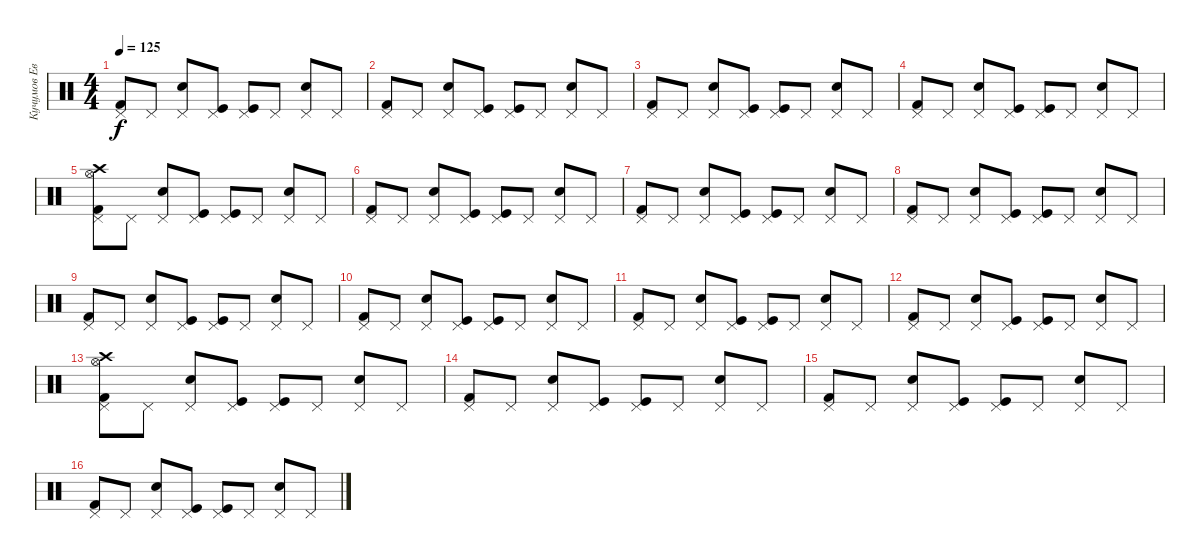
\track ("Кучумов Евгений" "Кучумов Ев") {instrument percussion}
\staff {score}
\articulation defaults
\ts (4 4)
\tempo 125
\clef neutral
\ks c
("Kick (hit) 2" "Pedal Hi-Hat (hit)").8{dy f} "Pedal Hi-Hat (hit)".8 ("Electric Snare (hit)" "Pedal Hi-Hat (hit)").8 ("Kick (hit)" "Pedal Hi-Hat (hit)").8 ("Kick (hit)" "Pedal Hi-Hat (hit)").8 "Pedal Hi-Hat (hit)".8 ("Electric Snare (hit)" "Pedal Hi-Hat (hit)").8 "Pedal Hi-Hat (hit)".8 |
("Kick (hit) 2" "Pedal Hi-Hat (hit)").8 "Pedal Hi-Hat (hit)".8 ("Electric Snare (hit)" "Pedal Hi-Hat (hit)").8 ("Kick (hit)" "Pedal Hi-Hat (hit)").8 ("Kick (hit)" "Pedal Hi-Hat (hit)").8 "Pedal Hi-Hat (hit)".8 ("Electric Snare (hit)" "Pedal Hi-Hat (hit)").8 "Pedal Hi-Hat (hit)".8 |
("Kick (hit) 2" "Pedal Hi-Hat (hit)").8 "Pedal Hi-Hat (hit)".8 ("Electric Snare (hit)" "Pedal Hi-Hat (hit)").8 ("Kick (hit)" "Pedal Hi-Hat (hit)").8 ("Kick (hit)" "Pedal Hi-Hat (hit)").8 "Pedal Hi-Hat (hit)".8 ("Electric Snare (hit)" "Pedal Hi-Hat (hit)").8 "Pedal Hi-Hat (hit)".8 |
("Kick (hit) 2" "Pedal Hi-Hat (hit)").8 "Pedal Hi-Hat (hit)".8 ("Electric Snare (hit)" "Pedal Hi-Hat (hit)").8 ("Kick (hit)" "Pedal Hi-Hat (hit)").8 ("Kick (hit)" "Pedal Hi-Hat (hit)").8 "Pedal Hi-Hat (hit)".8 ("Electric Snare (hit)" "Pedal Hi-Hat (hit)").8 "Pedal Hi-Hat (hit)".8 |
("Kick (hit) 2" "Crash high (hit)" "Hi-Hat (open)" "Pedal Hi-Hat (hit)").8 "Pedal Hi-Hat (hit)".8 ("Electric Snare (hit)" "Pedal Hi-Hat (hit)").8 ("Kick (hit)" "Pedal Hi-Hat (hit)").8 ("Kick (hit)" "Pedal Hi-Hat (hit)").8 "Pedal Hi-Hat (hit)".8 ("Electric Snare (hit)" "Pedal Hi-Hat (hit)").8 "Pedal Hi-Hat (hit)".8 |
("Kick (hit) 2" "Pedal Hi-Hat (hit)").8 "Pedal Hi-Hat (hit)".8 ("Electric Snare (hit)" "Pedal Hi-Hat (hit)").8 ("Kick (hit)" "Pedal Hi-Hat (hit)").8 ("Kick (hit)" "Pedal Hi-Hat (hit)").8 "Pedal Hi-Hat (hit)".8 ("Electric Snare (hit)" "Pedal Hi-Hat (hit)").8 "Pedal Hi-Hat (hit)".8 |
("Kick (hit) 2" "Pedal Hi-Hat (hit)").8 "Pedal Hi-Hat (hit)".8 ("Electric Snare (hit)" "Pedal Hi-Hat (hit)").8 ("Kick (hit)" "Pedal Hi-Hat (hit)").8 ("Kick (hit)" "Pedal Hi-Hat (hit)").8 "Pedal Hi-Hat (hit)".8 ("Electric Snare (hit)" "Pedal Hi-Hat (hit)").8 "Pedal Hi-Hat (hit)".8 |
("Kick (hit) 2" "Pedal Hi-Hat (hit)").8 "Pedal Hi-Hat (hit)".8 ("Electric Snare (hit)" "Pedal Hi-Hat (hit)").8 ("Kick (hit)" "Pedal Hi-Hat (hit)").8 ("Kick (hit)" "Pedal Hi-Hat (hit)").8 "Pedal Hi-Hat (hit)".8 ("Electric Snare (hit)" "Pedal Hi-Hat (hit)").8 "Pedal Hi-Hat (hit)".8 |
("Kick (hit) 2" "Pedal Hi-Hat (hit)").8 "Pedal Hi-Hat (hit)".8 ("Electric Snare (hit)" "Pedal Hi-Hat (hit)").8 ("Kick (hit)" "Pedal Hi-Hat (hit)").8 ("Kick (hit)" "Pedal Hi-Hat (hit)").8 "Pedal Hi-Hat (hit)".8 ("Electric Snare (hit)" "Pedal Hi-Hat (hit)").8 "Pedal Hi-Hat (hit)".8 |
("Kick (hit) 2" "Pedal Hi-Hat (hit)").8 "Pedal Hi-Hat (hit)".8 ("Electric Snare (hit)" "Pedal Hi-Hat (hit)").8 ("Kick (hit)" "Pedal Hi-Hat (hit)").8 ("Kick (hit)" "Pedal Hi-Hat (hit)").8 "Pedal Hi-Hat (hit)".8 ("Electric Snare (hit)" "Pedal Hi-Hat (hit)").8 "Pedal Hi-Hat (hit)".8 |
("Kick (hit) 2" "Pedal Hi-Hat (hit)").8 "Pedal Hi-Hat (hit)".8 ("Electric Snare (hit)" "Pedal Hi-Hat (hit)").8 ("Kick (hit)" "Pedal Hi-Hat (hit)").8 ("Kick (hit)" "Pedal Hi-Hat (hit)").8 "Pedal Hi-Hat (hit)".8 ("Electric Snare (hit)" "Pedal Hi-Hat (hit)").8 "Pedal Hi-Hat (hit)".8 |
("Kick (hit) 2" "Pedal Hi-Hat (hit)").8 "Pedal Hi-Hat (hit)".8 ("Electric Snare (hit)" "Pedal Hi-Hat (hit)").8 ("Kick (hit)" "Pedal Hi-Hat (hit)").8 ("Kick (hit)" "Pedal Hi-Hat (hit)").8 "Pedal Hi-Hat (hit)".8 ("Electric Snare (hit)" "Pedal Hi-Hat (hit)").8 "Pedal Hi-Hat (hit)".8 |
("Kick (hit) 2" "Crash high (hit)" "Hi-Hat (open)" "Pedal Hi-Hat (hit)").8 "Pedal Hi-Hat (hit)".8 ("Electric Snare (hit)" "Pedal Hi-Hat (hit)").8 ("Kick (hit)" "Pedal Hi-Hat (hit)").8 ("Kick (hit)" "Pedal Hi-Hat (hit)").8 "Pedal Hi-Hat (hit)".8 ("Electric Snare (hit)" "Pedal Hi-Hat (hit)").8 "Pedal Hi-Hat (hit)".8 |
("Kick (hit) 2" "Pedal Hi-Hat (hit)").8 "Pedal Hi-Hat (hit)".8 ("Electric Snare (hit)" "Pedal Hi-Hat (hit)").8 ("Kick (hit)" "Pedal Hi-Hat (hit)").8 ("Kick (hit)" "Pedal Hi-Hat (hit)").8 "Pedal Hi-Hat (hit)".8 ("Electric Snare (hit)" "Pedal Hi-Hat (hit)").8 "Pedal Hi-Hat (hit)".8 |
("Kick (hit) 2" "Pedal Hi-Hat (hit)").8 "Pedal Hi-Hat (hit)".8 ("Electric Snare (hit)" "Pedal Hi-Hat (hit)").8 ("Kick (hit)" "Pedal Hi-Hat (hit)").8 ("Kick (hit)" "Pedal Hi-Hat (hit)").8 "Pedal Hi-Hat (hit)".8 ("Electric Snare (hit)" "Pedal Hi-Hat (hit)").8 "Pedal Hi-Hat (hit)".8 |
("Kick (hit) 2" "Pedal Hi-Hat (hit)").8 "Pedal Hi-Hat (hit)".8 ("Electric Snare (hit)" "Pedal Hi-Hat (hit)").8 ("Kick (hit)" "Pedal Hi-Hat (hit)").8 ("Kick (hit)" "Pedal Hi-Hat (hit)").8 "Pedal Hi-Hat (hit)".8 ("Electric Snare (hit)" "Pedal Hi-Hat (hit)").8 "Pedal Hi-Hat (hit)".8
